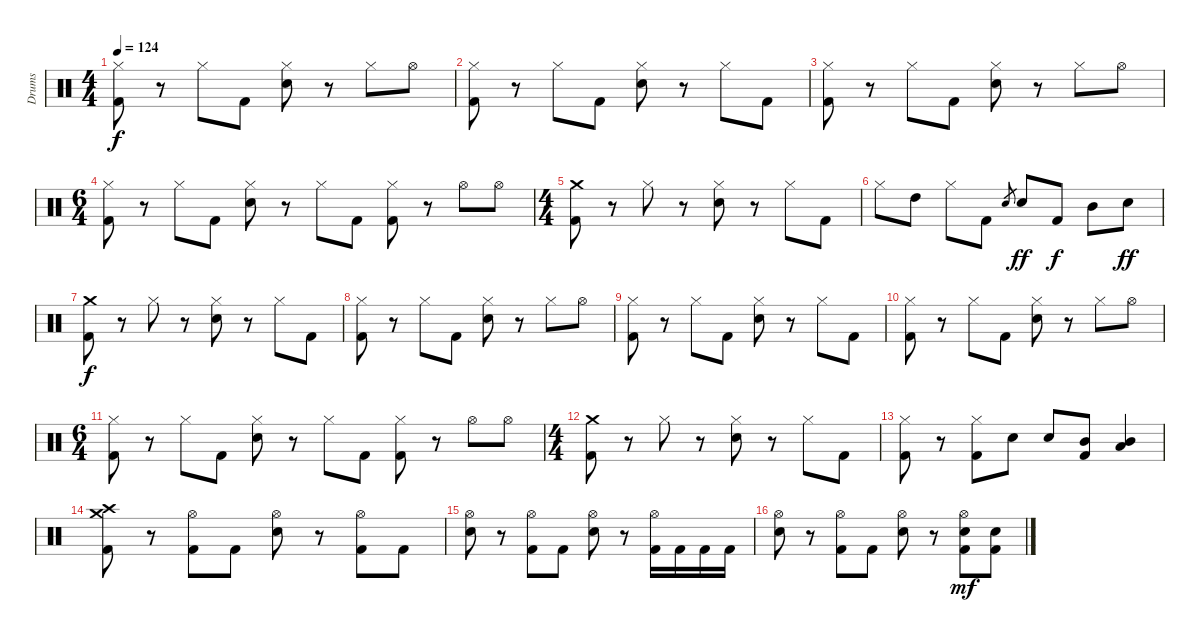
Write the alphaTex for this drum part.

\track ("Drums" "Drums") {instrument percussion}
\staff {score}
\articulation defaults
\ts (4 4)
\tempo 124
\clef neutral
\ks c
("Hi-Hat (closed)" "Kick (hit) 2").8{dy f} r.8 "Hi-Hat (closed)".8 "Kick (hit) 2".8 ("Hi-Hat (closed)" "Electric Snare (hit)").8 r.8 "Hi-Hat (closed)".8 "Hi-Hat (open)".8 |
("Hi-Hat (closed)" "Kick (hit) 2").8 r.8 "Hi-Hat (closed)".8 "Kick (hit) 2".8 ("Hi-Hat (closed)" "Electric Snare (hit)").8 r.8 "Hi-Hat (closed)".8 "Kick (hit) 2".8 |
("Hi-Hat (closed)" "Kick (hit) 2").8 r.8 "Hi-Hat (closed)".8 "Kick (hit) 2".8 ("Hi-Hat (closed)" "Electric Snare (hit)").8 r.8 "Hi-Hat (closed)".8 "Hi-Hat (open)".8 |
\ts (6 4)
("Hi-Hat (closed)" "Kick (hit) 2").8 r.8 "Hi-Hat (closed)".8 "Kick (hit) 2".8 ("Hi-Hat (closed)" "Electric Snare (hit)").8 r.8 "Hi-Hat (closed)".8 "Kick (hit) 2".8 ("Hi-Hat (closed)" "Kick (hit) 2").8 r.8 "Hi-Hat (open)".8 "Hi-Hat (open)".8 |
\ts (4 4)
("Crash medium (hit)" "Kick (hit) 2").8 r.8 "Hi-Hat (closed)".8 r.8 ("Hi-Hat (closed)" "Electric Snare (hit)").8 r.8 "Hi-Hat (closed)".8 "Kick (hit) 2".8 |
"Hi-Hat (closed)".8 "High Tom (hit)".8 "Hi-Hat (closed)".8 "Kick (hit) 2".8 "Electric Snare (hit)".8{gr} "Electric Snare (hit)".8{dy ff} "Kick (hit) 2".8{dy f} "Mid Tom (hit)".8 "Electric Snare (hit)".8{dy ff} |
("Crash medium (hit)" "Kick (hit) 2").8{dy f} r.8 "Hi-Hat (closed)".8 r.8 ("Hi-Hat (closed)" "Electric Snare (hit)").8 r.8 "Hi-Hat (closed)".8 "Kick (hit) 2".8 |
("Hi-Hat (closed)" "Kick (hit) 2").8 r.8 "Hi-Hat (closed)".8 "Kick (hit) 2".8 ("Hi-Hat (closed)" "Electric Snare (hit)").8 r.8 "Hi-Hat (closed)".8 "Hi-Hat (open)".8 |
("Hi-Hat (closed)" "Kick (hit) 2").8 r.8 "Hi-Hat (closed)".8 "Kick (hit) 2".8 ("Hi-Hat (closed)" "Electric Snare (hit)").8 r.8 "Hi-Hat (closed)".8 "Kick (hit) 2".8 |
("Hi-Hat (closed)" "Kick (hit) 2").8 r.8 "Hi-Hat (closed)".8 "Kick (hit) 2".8 ("Hi-Hat (closed)" "Electric Snare (hit)").8 r.8 "Hi-Hat (closed)".8 "Hi-Hat (open)".8 |
\ts (6 4)
("Hi-Hat (closed)" "Kick (hit) 2").8 r.8 "Hi-Hat (closed)".8 "Kick (hit) 2".8 ("Hi-Hat (closed)" "Electric Snare (hit)").8 r.8 "Hi-Hat (closed)".8 "Kick (hit) 2".8 ("Hi-Hat (closed)" "Kick (hit) 2").8 r.8 "Hi-Hat (open)".8 "Hi-Hat (open)".8 |
\ts (4 4)
("Crash medium (hit)" "Kick (hit) 2").8 r.8 "Hi-Hat (closed)".8 r.8 ("Hi-Hat (closed)" "Electric Snare (hit)").8 r.8 "Hi-Hat (closed)".8 "Kick (hit) 2".8 |
("Hi-Hat (closed)" "Kick (hit) 2").8 r.8 ("Hi-Hat (closed)" "Kick (hit) 2").8 "Electric Snare (hit)".8 "Electric Snare (hit)".8 ("Mid Tom (hit)" "Kick (hit) 2").8 ("Low Tom (hit)" "Mid Tom (hit)").4 |
("Crash medium (hit)" "Crash high (hit)" "Kick (hit) 2").8 r.8 ("Hi-Hat (open)" "Kick (hit) 2").8 "Kick (hit) 2".8 ("Hi-Hat (open)" "Electric Snare (hit)").8 r.8 ("Hi-Hat (open)" "Kick (hit) 2").8 "Kick (hit) 2".8 |
("Hi-Hat (open)" "Electric Snare (hit)").8 r.8 ("Hi-Hat (open)" "Kick (hit) 2").8 "Kick (hit) 2".8 ("Hi-Hat (open)" "Electric Snare (hit)").8 r.8 ("Hi-Hat (open)" "Kick (hit) 2").16 "Kick (hit) 2".16 "Kick (hit) 2".16 "Kick (hit) 2".16 |
("Hi-Hat (open)" "Electric Snare (hit)").8 r.8 ("Hi-Hat (open)" "Kick (hit) 2").8 "Kick (hit) 2".8 ("Hi-Hat (open)" "Electric Snare (hit)").8 r.8 ("Hi-Hat (open)" "Electric Snare (hit)" "Kick (hit) 2").8{dy mf} ("Electric Snare (hit)" "Kick (hit) 2").8
